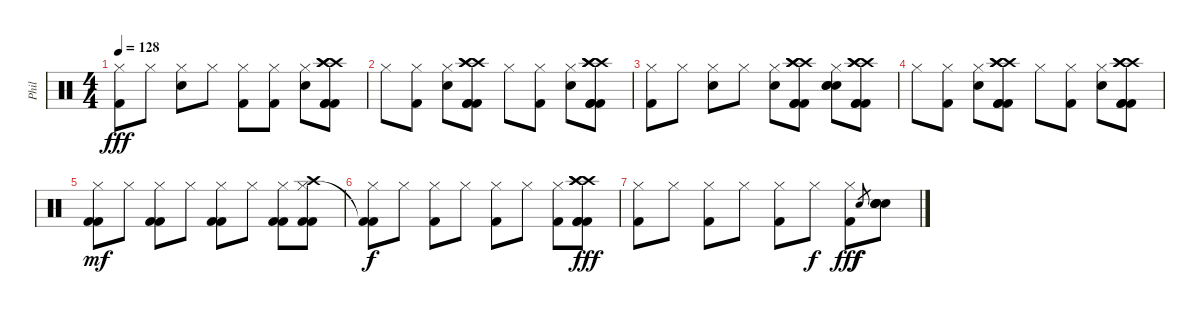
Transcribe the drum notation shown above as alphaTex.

\track ("Phil" "Phil") {instrument percussion}
\staff {score}
\articulation defaults
\ts (4 4)
\tempo 128
\clef neutral
\ks c
("Hi-Hat (closed)" "Kick (hit) 2").8{dy fff} "Hi-Hat (closed)".8 ("Hi-Hat (closed)" "Electric Snare (hit)").8 "Hi-Hat (closed)".8 ("Hi-Hat (closed)" "Kick (hit) 2").8 ("Hi-Hat (closed)" "Kick (hit) 2").8 ("Hi-Hat (closed)" "Electric Snare (hit)").8 ("Crash high (hit)" "Crash high (hit)" "Crash high (hit)" "Kick (hit) 2" "Kick (hit) 2" "Kick (hit) 2").8 |
"Hi-Hat (closed)".8 ("Hi-Hat (closed)" "Kick (hit) 2").8 ("Hi-Hat (closed)" "Electric Snare (hit)").8 ("Crash high (hit)" "Crash high (hit)" "Crash high (hit)" "Kick (hit) 2" "Kick (hit) 2" "Kick (hit) 2").8 "Hi-Hat (closed)".8 ("Hi-Hat (closed)" "Kick (hit) 2").8 ("Hi-Hat (closed)" "Electric Snare (hit)").8 ("Crash high (hit)" "Crash high (hit)" "Crash high (hit)" "Kick (hit) 2" "Kick (hit) 2" "Kick (hit) 2").8 |
("Hi-Hat (closed)" "Kick (hit) 2").8 "Hi-Hat (closed)".8 ("Hi-Hat (closed)" "Electric Snare (hit)").8 "Hi-Hat (closed)".8 ("Hi-Hat (closed)" "Electric Snare (hit)").8 ("Crash high (hit)" "Crash high (hit)" "Crash high (hit)" "Kick (hit) 2" "Kick (hit) 2" "Kick (hit) 2").8 ("Hi-Hat (closed)" "Electric Snare (hit)" "Electric Snare (hit)" "Electric Snare (hit)").8 ("Crash high (hit)" "Crash high (hit)" "Crash high (hit)" "Kick (hit) 2" "Kick (hit) 2" "Kick (hit) 2").8 |
"Hi-Hat (closed)".8 ("Hi-Hat (closed)" "Kick (hit) 2").8 ("Hi-Hat (closed)" "Electric Snare (hit)").8 ("Crash high (hit)" "Crash high (hit)" "Crash high (hit)" "Kick (hit) 2" "Kick (hit) 2" "Kick (hit) 2").8 "Hi-Hat (closed)".8 ("Hi-Hat (closed)" "Kick (hit) 2").8 ("Hi-Hat (closed)" "Electric Snare (hit)").8 ("Crash high (hit)" "Crash high (hit)" "Crash high (hit)" "Kick (hit) 2" "Kick (hit) 2" "Kick (hit) 2").8 |
("Hi-Hat (closed)" "Kick (hit) 2" "Kick (hit) 2").8{dy mf} "Hi-Hat (closed)".8 ("Hi-Hat (closed)" "Kick (hit) 2" "Kick (hit) 2").8 "Hi-Hat (closed)".8 ("Hi-Hat (closed)" "Kick (hit) 2" "Kick (hit) 2").8 "Hi-Hat (closed)".8 ("Hi-Hat (closed)" "Kick (hit) 2" "Kick (hit) 2").8 ("Crash high (hit)" "Hi-Hat (closed)" "Kick (hit) 2" "Kick (hit) 2").8 |
("Hi-Hat (closed)" "Kick (hit) 2"{t} "Kick (hit) 2").8{dy f} "Hi-Hat (closed)".8 ("Hi-Hat (closed)" "Kick (hit) 2").8 "Hi-Hat (closed)".8 ("Hi-Hat (closed)" "Kick (hit) 2").8 "Hi-Hat (closed)".8 ("Hi-Hat (closed)" "Kick (hit) 2").8 ("Crash high (hit)" "Crash high (hit)" "Crash high (hit)" "Kick (hit) 2" "Kick (hit) 2" "Kick (hit) 2").8{dy fff} |
("Hi-Hat (closed)" "Kick (hit) 2").8 "Hi-Hat (closed)".8 ("Hi-Hat (closed)" "Kick (hit) 2").8 "Hi-Hat (closed)".8 ("Hi-Hat (closed)" "Kick (hit) 2").8 "Hi-Hat (closed)".8{dy f} ("Hi-Hat (closed)" "Kick (hit) 2").8{dy fff} "Electric Snare (hit)".8{gr dy f} ("Electric Snare (hit)" "Electric Snare (hit)" "Electric Snare (hit)" "Electric Snare (hit)").8
